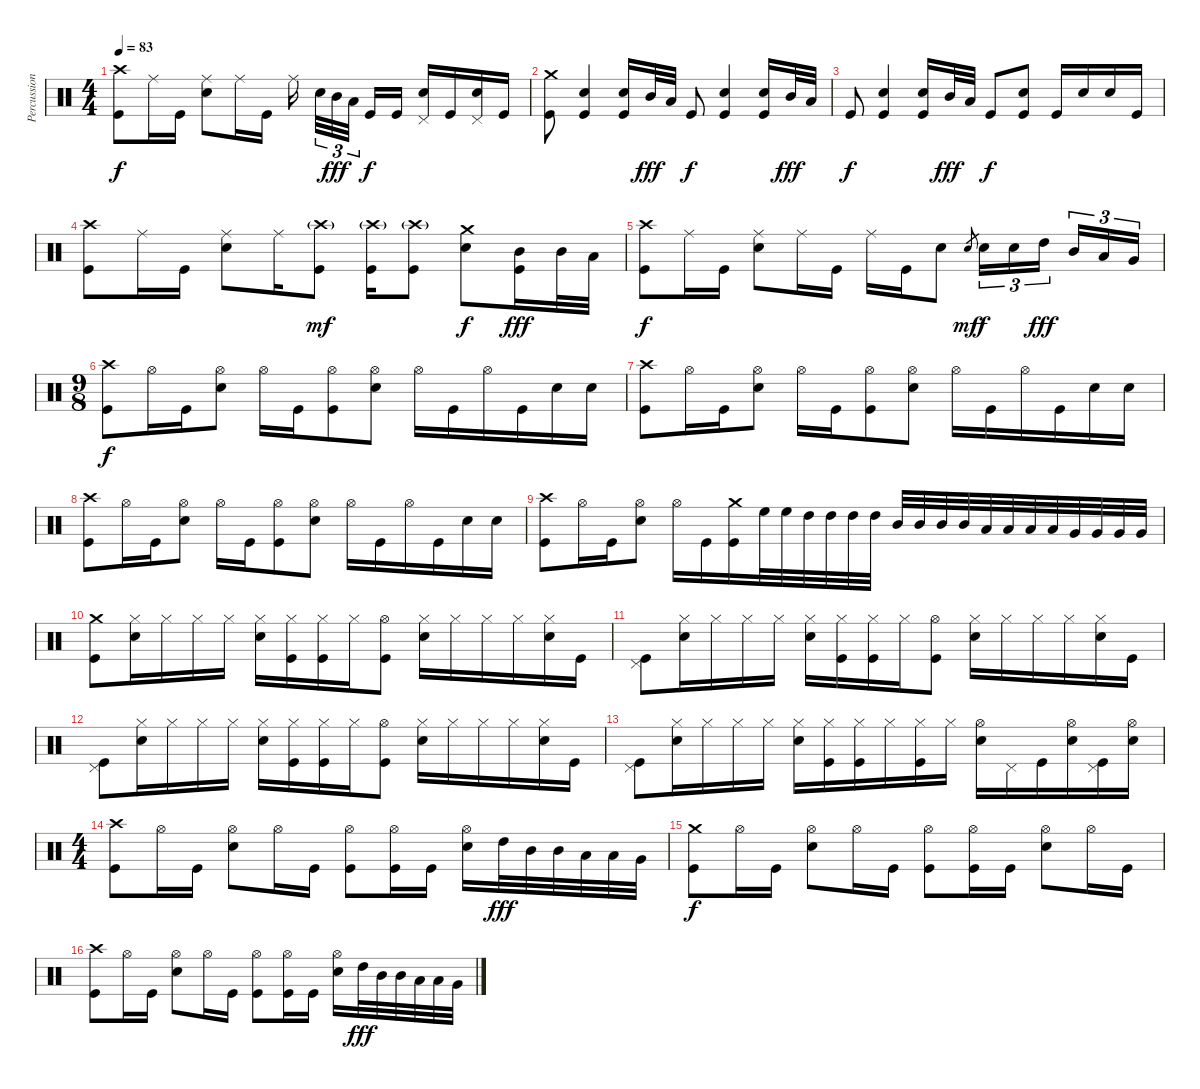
\track ("Percussions" "Percussion") {instrument percussion}
\staff {score}
\articulation defaults
\ts (4 4)
\tempo 83
\clef neutral
\ks c
("Crash high (hit)" "Kick (hit)").8{dy f volume 16} "Ride (middle)".16 "Kick (hit)".16 ("Ride (middle)" "Electric Snare (hit)").8 "Ride (middle)".16 "Kick (hit)".16 "Ride (middle)".16{beam splitsecondary} "Electric Snare (hit)".32{tu (3 2)} "Mid Tom (hit)".32{tu (3 2) dy fff volume 12} "Low Tom (hit)".32{tu (3 2) beam splitsecondary} "Kick (hit)".16{dy f volume 16} "Kick (hit)".16 ("Pedal Hi-Hat (hit)" "Electric Snare (hit)").16 "Kick (hit)".16 ("Pedal Hi-Hat (hit)" "Electric Snare (hit)").16 "Kick (hit)".16 |
("Crash medium (hit)" "Kick (hit)").8 ("Electric Snare (hit)" "Kick (hit)").4 ("Electric Snare (hit)" "Kick (hit)").16 "Mid Tom (hit)".32{dy fff volume 12} "Low Tom (hit)".32 "Kick (hit)".8{dy f volume 16} ("Electric Snare (hit)" "Kick (hit)").4 ("Electric Snare (hit)" "Kick (hit)").16 "Mid Tom (hit)".32{dy fff volume 12} "Low Tom (hit)".32 |
"Kick (hit)".8{dy f volume 16} ("Electric Snare (hit)" "Kick (hit)").4 ("Electric Snare (hit)" "Kick (hit)").16 "Mid Tom (hit)".32{dy fff volume 12} "Low Tom (hit)".32 "Kick (hit)".8{dy f volume 16} ("Electric Snare (hit)" "Kick (hit)").8 "Kick (hit)".16 "Electric Snare (hit)".16 "Electric Snare (hit)".16 "Kick (hit)".16 |
("Crash high (hit)" "Kick (hit)").8 "Ride (middle)".16 "Kick (hit)".16 ("Ride (middle)" "Electric Snare (hit)").8 "Ride (middle)".16 ("Crash high (hit)"{g} "Kick (hit)").8{dy mf} ("Crash high (hit)"{g} "Kick (hit)").16 ("Crash high (hit)"{g} "Kick (hit)").8 ("Crash medium (hit)" "Electric Snare (hit)").8{dy f} ("Mid Tom (hit)" "Kick (hit)").16{dy fff volume 12} "Mid Tom (hit)".32 "Low Tom (hit)".32 |
("Crash high (hit)" "Kick (hit)").8{dy f volume 16} "Ride (middle)".16 "Kick (hit)".16 ("Ride (middle)" "Electric Snare (hit)").8 "Ride (middle)".16 "Kick (hit)".16 "Ride (middle)".16 "Kick (hit)".16 "Electric Snare (hit)".8 "Electric Snare (hit)".8{gr dy mf} "Electric Snare (hit)".16{tu (3 2) dy f} "Electric Snare (hit)".16{tu (3 2)} "High Tom (hit)".16{tu (3 2) dy fff volume 12 beam splitsecondary} "Mid Tom (hit)".16{tu (3 2)} "Low Tom (hit)".16{tu (3 2)} "Very Low Tom (hit)".16{tu (3 2)} |
\ts (9 8)
("Crash high (hit)" "Kick (hit)").8{dy f volume 16} "Hi-Hat (open)".16 "Kick (hit)".16 ("Hi-Hat (open)" "Electric Snare (hit)").8 "Hi-Hat (open)".16 "Kick (hit)".16 ("Hi-Hat (open)" "Kick (hit)").8 ("Hi-Hat (open)" "Electric Snare (hit)").8 "Hi-Hat (open)".16 "Kick (hit)".16 "Hi-Hat (open)".16 "Kick (hit)".16 "Electric Snare (hit)".16 "Electric Snare (hit)".16 |
("Crash high (hit)" "Kick (hit)").8 "Hi-Hat (open)".16 "Kick (hit)".16 ("Hi-Hat (open)" "Electric Snare (hit)").8 "Hi-Hat (open)".16 "Kick (hit)".16 ("Hi-Hat (open)" "Kick (hit)").8 ("Hi-Hat (open)" "Electric Snare (hit)").8 "Hi-Hat (open)".16 "Kick (hit)".16 "Hi-Hat (open)".16 "Kick (hit)".16 "Electric Snare (hit)".16 "Electric Snare (hit)".16 |
("Crash high (hit)" "Kick (hit)").8 "Hi-Hat (open)".16 "Kick (hit)".16 ("Hi-Hat (open)" "Electric Snare (hit)").8 "Hi-Hat (open)".16 "Kick (hit)".16 ("Hi-Hat (open)" "Kick (hit)").8 ("Hi-Hat (open)" "Electric Snare (hit)").8 "Hi-Hat (open)".16 "Kick (hit)".16 "Hi-Hat (open)".16 "Kick (hit)".16 "Electric Snare (hit)".16 "Electric Snare (hit)".16 |
("Crash high (hit)" "Kick (hit)").8 "Hi-Hat (open)".16 "Kick (hit)".16 ("Hi-Hat (open)" "Electric Snare (hit)").8 "Hi-Hat (open)".16 "Kick (hit)".16 ("Crash medium (hit)" "Kick (hit)").16 "High Floor Tom (hit)".32 "High Floor Tom (hit)".32 "High Tom (hit)".32{volume 12} "High Tom (hit)".32 "High Tom (hit)".32 "High Tom (hit)".32 "Mid Tom (hit)".32 "Mid Tom (hit)".32 "Mid Tom (hit)".32 "Mid Tom (hit)".32 "Low Tom (hit)".32{volume 11} "Low Tom (hit)".32 "Low Tom (hit)".32 "Low Tom (hit)".32 "Very Low Tom (hit)".32 "Very Low Tom (hit)".32 "Very Low Tom (hit)".32 "Very Low Tom (hit)".32 |
("Crash medium (hit)" "Kick (hit)").8{volume 16} ("Hi-Hat (closed)" "Electric Snare (hit)").16 "Hi-Hat (closed)".16 "Hi-Hat (closed)".16 "Hi-Hat (closed)".16 ("Hi-Hat (closed)" "Electric Snare (hit)").16 ("Hi-Hat (closed)" "Kick (hit)").16 ("Hi-Hat (closed)" "Kick (hit)").16 "Hi-Hat (closed)".16 ("Hi-Hat (open)" "Kick (hit)").8 ("Hi-Hat (closed)" "Electric Snare (hit)").16 "Hi-Hat (closed)".16 "Hi-Hat (closed)".16 "Hi-Hat (closed)".16 ("Hi-Hat (closed)" "Electric Snare (hit)").16 "Kick (hit)".16 |
("Pedal Hi-Hat (hit)" "Kick (hit)").8 ("Hi-Hat (closed)" "Electric Snare (hit)").16 "Hi-Hat (closed)".16 "Hi-Hat (closed)".16 "Hi-Hat (closed)".16 ("Hi-Hat (closed)" "Electric Snare (hit)").16 ("Hi-Hat (closed)" "Kick (hit)").16 ("Hi-Hat (closed)" "Kick (hit)").16 "Hi-Hat (closed)".16 ("Hi-Hat (open)" "Kick (hit)").8 ("Hi-Hat (closed)" "Electric Snare (hit)").16 "Hi-Hat (closed)".16 "Hi-Hat (closed)".16 "Hi-Hat (closed)".16 ("Hi-Hat (closed)" "Electric Snare (hit)").16 "Kick (hit)".16 |
("Pedal Hi-Hat (hit)" "Kick (hit)").8 ("Hi-Hat (closed)" "Electric Snare (hit)").16 "Hi-Hat (closed)".16 "Hi-Hat (closed)".16 "Hi-Hat (closed)".16 ("Hi-Hat (closed)" "Electric Snare (hit)").16 ("Hi-Hat (closed)" "Kick (hit)").16 ("Hi-Hat (closed)" "Kick (hit)").16 "Hi-Hat (closed)".16 ("Hi-Hat (open)" "Kick (hit)").8 ("Hi-Hat (closed)" "Electric Snare (hit)").16 "Hi-Hat (closed)".16 "Hi-Hat (closed)".16 "Hi-Hat (closed)".16 ("Hi-Hat (closed)" "Electric Snare (hit)").16 "Kick (hit)".16 |
("Pedal Hi-Hat (hit)" "Kick (hit)").8 ("Hi-Hat (closed)" "Electric Snare (hit)").16 "Hi-Hat (closed)".16 "Hi-Hat (closed)".16 "Hi-Hat (closed)".16 ("Hi-Hat (closed)" "Electric Snare (hit)").16 ("Hi-Hat (closed)" "Kick (hit)").16 ("Hi-Hat (closed)" "Kick (hit)").16 "Hi-Hat (closed)".16 ("Hi-Hat (closed)" "Kick (hit)").16 "Hi-Hat (closed)".16 ("Hi-Hat (open)" "Electric Snare (hit)").16 "Pedal Hi-Hat (hit)".16 "Kick (hit)".16 ("Hi-Hat (open)" "Electric Snare (hit)").16 ("Pedal Hi-Hat (hit)" "Kick (hit)").16 ("Hi-Hat (open)" "Electric Snare (hit)").16 |
\ts (4 4)
("Crash high (hit)" "Kick (hit)").8 "Hi-Hat (open)".16 "Kick (hit)".16 ("Hi-Hat (open)" "Electric Snare (hit)").8 "Hi-Hat (open)".16 "Kick (hit)".16 ("Hi-Hat (open)" "Kick (hit)").8 ("Hi-Hat (open)" "Kick (hit)").16 "Kick (hit)".16 ("Hi-Hat (open)" "Electric Snare (hit)").16 "High Tom (hit)".32{dy fff volume 10} "Mid Tom (hit)".32 "Mid Tom (hit)".32 "Low Tom (hit)".32 "Low Tom (hit)".32 "Very Low Tom (hit)".32 |
("Crash medium (hit)" "Kick (hit)").8{dy f volume 16} "Hi-Hat (open)".16 "Kick (hit)".16 ("Hi-Hat (open)" "Electric Snare (hit)").8 "Hi-Hat (open)".16 "Kick (hit)".16 ("Hi-Hat (open)" "Kick (hit)").8 ("Hi-Hat (open)" "Kick (hit)").16 "Kick (hit)".16 ("Hi-Hat (open)" "Electric Snare (hit)").8 "Hi-Hat (open)".16 "Kick (hit)".16 |
("Crash high (hit)" "Kick (hit)").8 "Hi-Hat (open)".16 "Kick (hit)".16 ("Hi-Hat (open)" "Electric Snare (hit)").8 "Hi-Hat (open)".16 "Kick (hit)".16 ("Hi-Hat (open)" "Kick (hit)").8 ("Hi-Hat (open)" "Kick (hit)").16 "Kick (hit)".16 ("Hi-Hat (open)" "Electric Snare (hit)").16 "High Tom (hit)".32{dy fff volume 10} "Mid Tom (hit)".32 "Mid Tom (hit)".32 "Low Tom (hit)".32 "Low Tom (hit)".32 "Very Low Tom (hit)".32
